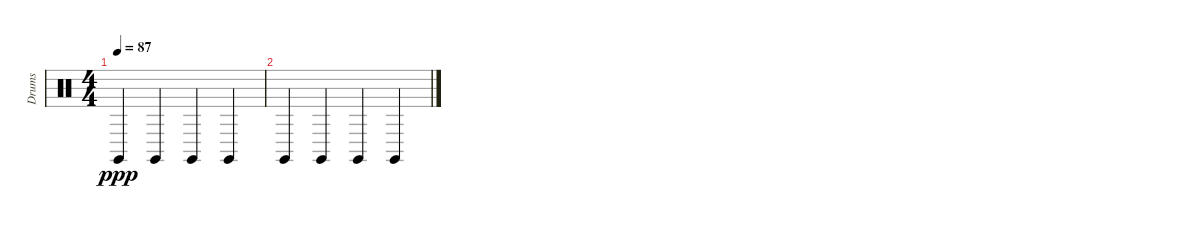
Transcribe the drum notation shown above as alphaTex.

\track ("Drums" "Drums") {instrument percussion}
\staff {score}
\articulation defaults
\ts (4 4)
\tempo 87
\clef neutral
\ks c "Claves (hit)".4{dy ppp} "Claves (hit)".4 "Claves (hit)".4 "Claves (hit)".4
|
"Claves (hit)".4 "Claves (hit)".4 "Claves (hit)".4 "Claves (hit)".4
